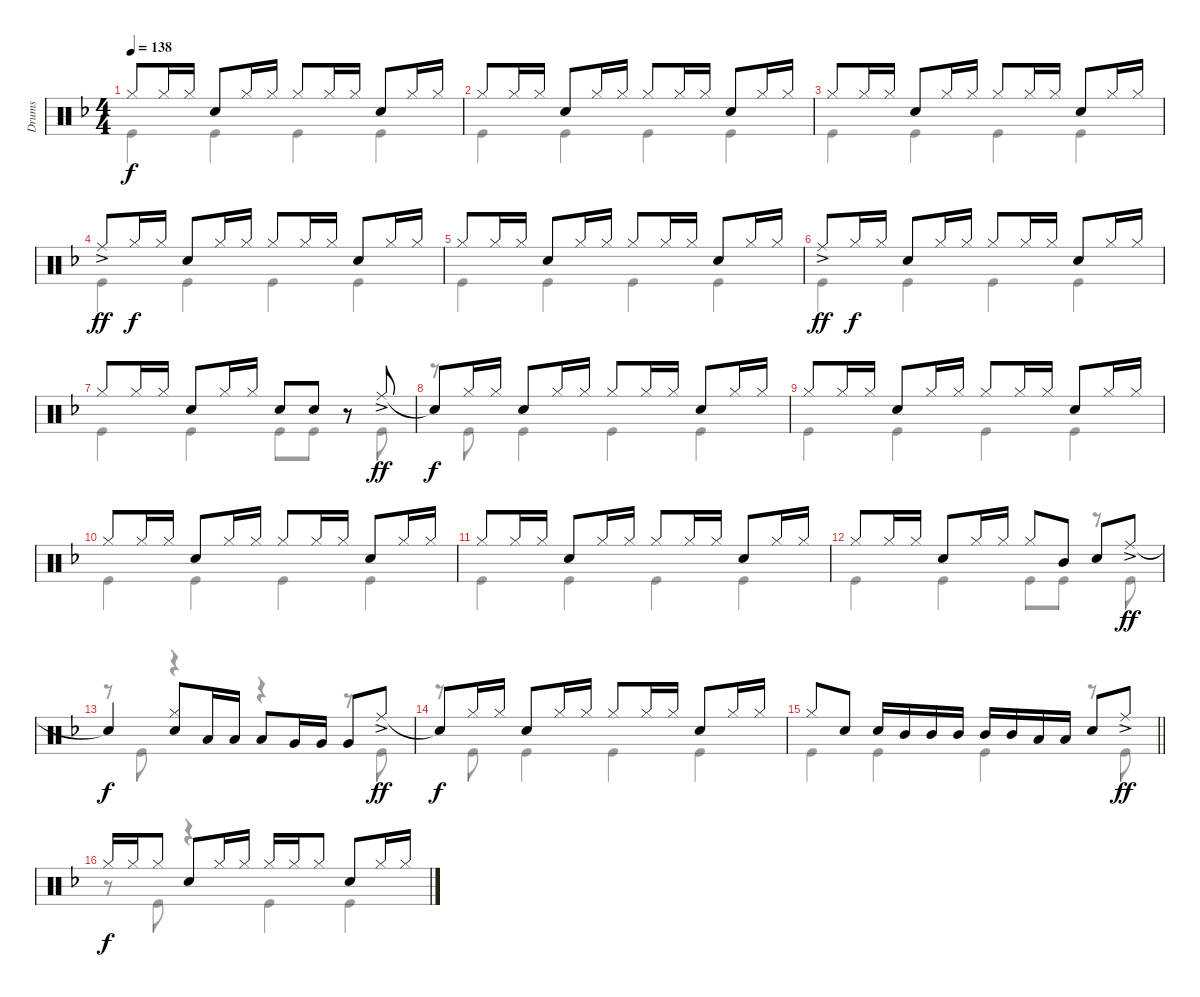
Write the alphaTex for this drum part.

\track ("Drums" "Drums") {instrument percussion}
\staff {score}
\articulation defaults
\voice
\ts (4 4)
\tempo 138
\clef neutral
\ks f "Hi-Hat (closed)".8{dy f} "Hi-Hat (closed)".16 "Hi-Hat (closed)".16 "Snare (hit) 2".8 "Hi-Hat (closed)".16 "Hi-Hat (closed)".16 "Hi-Hat (closed)".8 "Hi-Hat (closed)".16 "Hi-Hat (closed)".16 "Snare (hit) 2".8 "Hi-Hat (closed)".16 "Hi-Hat (closed)".16
|
"Hi-Hat (closed)".8 "Hi-Hat (closed)".16 "Hi-Hat (closed)".16 "Snare (hit) 2".8 "Hi-Hat (closed)".16 "Hi-Hat (closed)".16 "Hi-Hat (closed)".8 "Hi-Hat (closed)".16 "Hi-Hat (closed)".16 "Snare (hit) 2".8 "Hi-Hat (closed)".16 "Hi-Hat (closed)".16 |
"Hi-Hat (closed)".8 "Hi-Hat (closed)".16 "Hi-Hat (closed)".16 "Snare (hit) 2".8 "Hi-Hat (closed)".16 "Hi-Hat (closed)".16 "Hi-Hat (closed)".8 "Hi-Hat (closed)".16 "Hi-Hat (closed)".16 "Snare (hit) 2".8 "Hi-Hat (closed)".16 "Hi-Hat (closed)".16 |
"Ride (middle)"{ac}.8{dy ff} "Hi-Hat (closed)".16{dy f} "Hi-Hat (closed)".16 "Snare (hit) 2".8 "Hi-Hat (closed)".16 "Hi-Hat (closed)".16 "Hi-Hat (closed)".8 "Hi-Hat (closed)".16 "Hi-Hat (closed)".16 "Snare (hit) 2".8 "Hi-Hat (closed)".16 "Hi-Hat (closed)".16 |
"Hi-Hat (closed)".8 "Hi-Hat (closed)".16 "Hi-Hat (closed)".16 "Snare (hit) 2".8 "Hi-Hat (closed)".16 "Hi-Hat (closed)".16 "Hi-Hat (closed)".8 "Hi-Hat (closed)".16 "Hi-Hat (closed)".16 "Snare (hit) 2".8 "Hi-Hat (closed)".16 "Hi-Hat (closed)".16 |
"Ride (middle)"{ac}.8{dy ff} "Hi-Hat (closed)".16{dy f} "Hi-Hat (closed)".16 "Snare (hit) 2".8 "Hi-Hat (closed)".16 "Hi-Hat (closed)".16 "Hi-Hat (closed)".8 "Hi-Hat (closed)".16 "Hi-Hat (closed)".16 "Snare (hit) 2".8 "Hi-Hat (closed)".16 "Hi-Hat (closed)".16 |
"Hi-Hat (closed)".8 "Hi-Hat (closed)".16 "Hi-Hat (closed)".16 "Snare (hit) 2".8 "Hi-Hat (closed)".16 "Hi-Hat (closed)".16 "Snare (hit) 2".8 "Snare (hit) 2".8 r.8 "Ride (middle)"{ac}.8{dy ff} |
"Snare (hit)"{t}.8{dy f} "Hi-Hat (closed)".16 "Hi-Hat (closed)".16 "Snare (hit) 2".8 "Hi-Hat (closed)".16 "Hi-Hat (closed)".16 "Hi-Hat (closed)".8 "Hi-Hat (closed)".16 "Hi-Hat (closed)".16 "Snare (hit) 2".8 "Hi-Hat (closed)".16 "Hi-Hat (closed)".16 |
"Hi-Hat (closed)".8 "Hi-Hat (closed)".16 "Hi-Hat (closed)".16 "Snare (hit) 2".8 "Hi-Hat (closed)".16 "Hi-Hat (closed)".16 "Hi-Hat (closed)".8 "Hi-Hat (closed)".16 "Hi-Hat (closed)".16 "Snare (hit) 2".8 "Hi-Hat (closed)".16 "Hi-Hat (closed)".16 |
"Hi-Hat (closed)".8 "Hi-Hat (closed)".16 "Hi-Hat (closed)".16 "Snare (hit) 2".8 "Hi-Hat (closed)".16 "Hi-Hat (closed)".16 "Hi-Hat (closed)".8 "Hi-Hat (closed)".16 "Hi-Hat (closed)".16 "Snare (hit) 2".8 "Hi-Hat (closed)".16 "Hi-Hat (closed)".16 |
"Hi-Hat (closed)".8 "Hi-Hat (closed)".16 "Hi-Hat (closed)".16 "Snare (hit) 2".8 "Hi-Hat (closed)".16 "Hi-Hat (closed)".16 "Hi-Hat (closed)".8 "Hi-Hat (closed)".16 "Hi-Hat (closed)".16 "Snare (hit) 2".8 "Hi-Hat (closed)".16 "Hi-Hat (closed)".16 |
"Hi-Hat (closed)".8 "Hi-Hat (closed)".16 "Hi-Hat (closed)".16 "Snare (hit) 2".8 "Hi-Hat (closed)".16 "Hi-Hat (closed)".16 "Hi-Hat (closed)".8 "Mid Tom (hit)".8 "Snare (hit) 2".8 "Ride (middle)"{ac}.8{dy ff} |
"Snare (hit)"{t}.4{dy f} ("Hi-Hat (closed)" "Snare (hit) 2").8 "Low Tom (hit)".16 "Low Tom (hit)".16 "Low Tom (hit)".8 "Very Low Tom (hit)".16 "Very Low Tom (hit)".16 "Very Low Tom (hit)".8 "Ride (middle)"{ac}.8{dy ff} |
"Snare (hit)"{t}.8{dy f} "Hi-Hat (closed)".16 "Hi-Hat (closed)".16 "Snare (hit) 2".8 "Hi-Hat (closed)".16 "Hi-Hat (closed)".16 "Hi-Hat (closed)".8 "Hi-Hat (closed)".16 "Hi-Hat (closed)".16 "Snare (hit) 2".8 "Hi-Hat (closed)".16 "Hi-Hat (closed)".16 |
\barLineRight lightlight "Hi-Hat (closed)".8 "Snare (hit) 2".8 "Snare (hit) 2".16 "Mid Tom (hit)".16 "Mid Tom (hit)".16 "Mid Tom (hit)".16 "Mid Tom (hit)".16 "Mid Tom (hit)".16 "Low Tom (hit)".16 "Low Tom (hit)".16 "Snare (hit) 2".8 "Ride (middle)"{ac}.8{dy ff}
|
"Hi-Hat (closed)".16{dy f} "Hi-Hat (closed)".16 "Hi-Hat (closed)".8 "Snare (hit) 2".8 "Hi-Hat (closed)".16 "Hi-Hat (closed)".16 "Hi-Hat (closed)".16 "Hi-Hat (closed)".16 "Hi-Hat (closed)".8 "Snare (hit) 2".8 "Hi-Hat (closed)".16 "Hi-Hat (closed)".16
\voice
\clef neutral
\ottava regular
\simile none
\ks f "Kick (hit)".4{dy f} "Kick (hit)".4 "Kick (hit)".4 "Kick (hit)".4
|
"Kick (hit)".4 "Kick (hit)".4 "Kick (hit)".4 "Kick (hit)".4 |
"Kick (hit)".4 "Kick (hit)".4 "Kick (hit)".4 "Kick (hit)".4 |
"Kick (hit)".4 "Kick (hit)".4 "Kick (hit)".4 "Kick (hit)".4 |
"Kick (hit)".4 "Kick (hit)".4 "Kick (hit)".4 "Kick (hit)".4 |
"Kick (hit)".4 "Kick (hit)".4 "Kick (hit)".4 "Kick (hit)".4 |
"Kick (hit)".4 "Kick (hit)".4 "Kick (hit)".8 "Kick (hit)".8 r.8 "Kick (hit)".8 |
r.8 "Kick (hit)".8 "Kick (hit)".4 "Kick (hit)".4 "Kick (hit)".4 |
"Kick (hit)".4 "Kick (hit)".4 "Kick (hit)".4 "Kick (hit)".4 |
"Kick (hit)".4 "Kick (hit)".4 "Kick (hit)".4 "Kick (hit)".4 |
"Kick (hit)".4 "Kick (hit)".4 "Kick (hit)".4 "Kick (hit)".4 |
"Kick (hit)".4 "Kick (hit)".4 "Kick (hit)".8 "Kick (hit)".8 r.8 "Kick (hit)".8 |
r.8 "Kick (hit)".8 r.4 r.4 r.8 "Kick (hit)".8 |
r.8 "Kick (hit)".8 "Kick (hit)".4 "Kick (hit)".4 "Kick (hit)".4 |
\barLineRight lightlight "Kick (hit)".4 "Kick (hit)".4 "Kick (hit)".4
r.8 "Kick (hit)".8 |
r.8 "Kick (hit)".8 r.4 "Kick (hit)".4 "Kick (hit)".4
